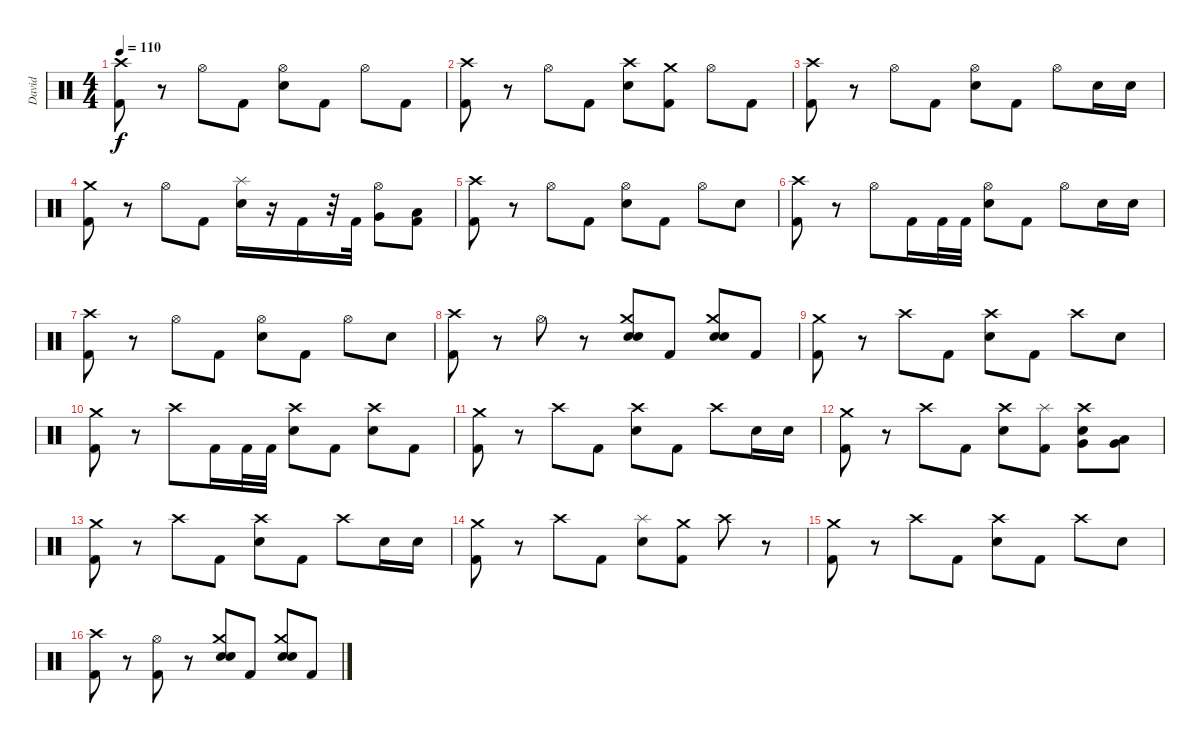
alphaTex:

\track ("David" "David") {instrument percussion}
\staff {score}
\articulation defaults
\ts (4 4)
\tempo 110
\clef neutral
\ks c
("Crash high (hit)" "Kick (hit) 2").8{dy f} r.8 "Hi-Hat (open)".8 "Kick (hit) 2".8 ("Hi-Hat (open)" "Snare (hit) 2").8 "Kick (hit) 2".8 "Hi-Hat (open)".8 "Kick (hit) 2".8 |
("Crash high (hit)" "Kick (hit) 2").8 r.8 "Hi-Hat (open)".8 "Kick (hit) 2".8 ("Crash high (hit)" "Snare (hit) 2").8 ("Crash medium (hit)" "Kick (hit) 2").8 "Hi-Hat (open)".8 "Kick (hit) 2".8 |
("Crash high (hit)" "Kick (hit) 2").8 r.8 "Hi-Hat (open)".8 "Kick (hit) 2".8 ("Hi-Hat (open)" "Snare (hit) 2").8 "Kick (hit) 2".8 "Hi-Hat (open)".8 "Snare (hit) 2".16 "Snare (hit) 2".16 |
("Crash medium (hit)" "Kick (hit) 2").8 r.8 "Hi-Hat (open)".8 "Kick (hit) 2".8 ("Splash (hit)" "Snare (hit) 2").16 r.16 "Kick (hit) 2".16 r.32 "Kick (hit) 2".32 ("Hi-Hat (open)" "Very Low Tom (hit)").8 ("Low Floor Tom (hit)" "Kick (hit) 2").8 |
("Crash high (hit)" "Kick (hit) 2").8 r.8 "Hi-Hat (open)".8 "Kick (hit) 2".8 ("Hi-Hat (open)" "Snare (hit) 2").8 "Kick (hit) 2".8 "Hi-Hat (open)".8 "Snare (hit) 2".8 |
("Crash high (hit)" "Kick (hit) 2").8 r.8 "Hi-Hat (open)".8 "Kick (hit) 2".16 "Kick (hit) 2".32 "Kick (hit) 2".32 ("Hi-Hat (open)" "Snare (hit) 2").8 "Kick (hit) 2".8 "Hi-Hat (open)".8 "Snare (hit) 2".16 "Snare (hit) 2".16 |
("Crash high (hit)" "Kick (hit) 2").8 r.8 "Hi-Hat (open)".8 "Kick (hit) 2".8 ("Hi-Hat (open)" "Snare (hit) 2").8 "Kick (hit) 2".8 "Hi-Hat (open)".8 "Snare (hit) 2".8 |
("Crash high (hit)" "Kick (hit) 2").8 r.8 "Hi-Hat (open)".8 r.8 ("Crash medium (hit)" "Electric Snare (hit)" "Snare (hit) 2").8 "Kick (hit) 2".8 ("Crash medium (hit)" "Electric Snare (hit)" "Snare (hit) 2").8 "Kick (hit) 2".8 |
("Crash medium (hit)" "Kick (hit) 2").8 r.8 "Crash high (hit)".8 "Kick (hit) 2".8 ("Crash high (hit)" "Snare (hit) 2").8 "Kick (hit) 2".8 "Crash high (hit)".8 "Snare (hit) 2".8 |
("Crash medium (hit)" "Kick (hit) 2").8 r.8 "Crash high (hit)".8 "Kick (hit) 2".16 "Kick (hit) 2".32 "Kick (hit) 2".32 ("Crash high (hit)" "Snare (hit) 2").8 "Kick (hit) 2".8 ("Crash high (hit)" "Snare (hit) 2").8 "Kick (hit) 2".8 |
("Crash medium (hit)" "Kick (hit) 2").8 r.8 "Crash high (hit)".8 "Kick (hit) 2".8 ("Crash high (hit)" "Snare (hit) 2").8 "Kick (hit) 2".8 "Crash high (hit)".8 "Snare (hit) 2".16 "Snare (hit) 2".16 |
("Crash medium (hit)" "Kick (hit) 2").8 r.8 "Crash high (hit)".8 "Kick (hit) 2".8 ("Crash high (hit)" "Snare (hit) 2").8 ("Splash (hit)" "Kick (hit) 2").8 ("Crash high (hit)" "Very Low Tom (hit)" "Snare (hit) 2").8 ("Low Floor Tom (hit)" "Very Low Tom (hit)").8 |
("Crash medium (hit)" "Kick (hit) 2").8 r.8 "Crash high (hit)".8 "Kick (hit) 2".8 ("Crash high (hit)" "Snare (hit) 2").8 "Kick (hit) 2".8 "Crash high (hit)".8 "Snare (hit) 2".16 "Snare (hit) 2".16 |
("Crash medium (hit)" "Kick (hit) 2").8 r.8 "Crash high (hit)".8 "Kick (hit) 2".8 ("Splash (hit)" "Snare (hit) 2").8 ("Crash medium (hit)" "Kick (hit) 2").8 "Crash high (hit)".8 r.8 |
("Crash medium (hit)" "Kick (hit) 2").8 r.8 "Crash high (hit)".8 "Kick (hit) 2".8 ("Crash high (hit)" "Snare (hit) 2").8 "Kick (hit) 2".8 "Crash high (hit)".8 "Snare (hit) 2".8 |
("Crash high (hit)" "Kick (hit) 2").8 r.8 ("Hi-Hat (open)" "Kick (hit) 2").8 r.8 ("Crash medium (hit)" "Electric Snare (hit)" "Snare (hit) 2").8 "Kick (hit) 2".8 ("Crash medium (hit)" "Electric Snare (hit)" "Snare (hit) 2").8 "Kick (hit) 2".8
